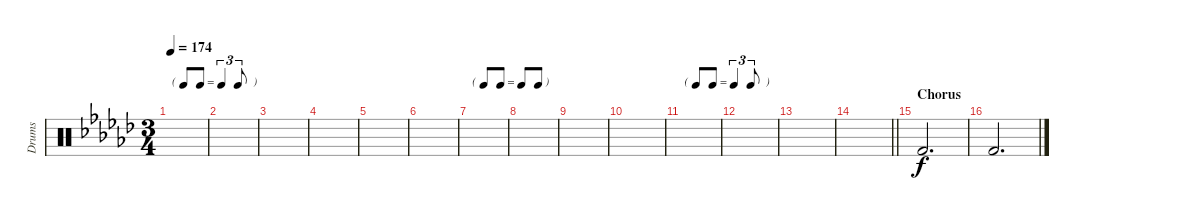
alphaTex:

\track ("Drums" "Drums") {instrument percussion}
\staff {score}
\articulation defaults
\ts (3 4)
\tf triplet8th
\tempo 174
\clef neutral
\ks ebminor
|
|
|
|
|
|
\tf none
|
|
|
|
\tf triplet8th
|
|
|
\barLineRight lightlight
|
\section ("" "Chorus")
"Kick (hit) 2".2{d} |
"Kick (hit) 2".2{d}
